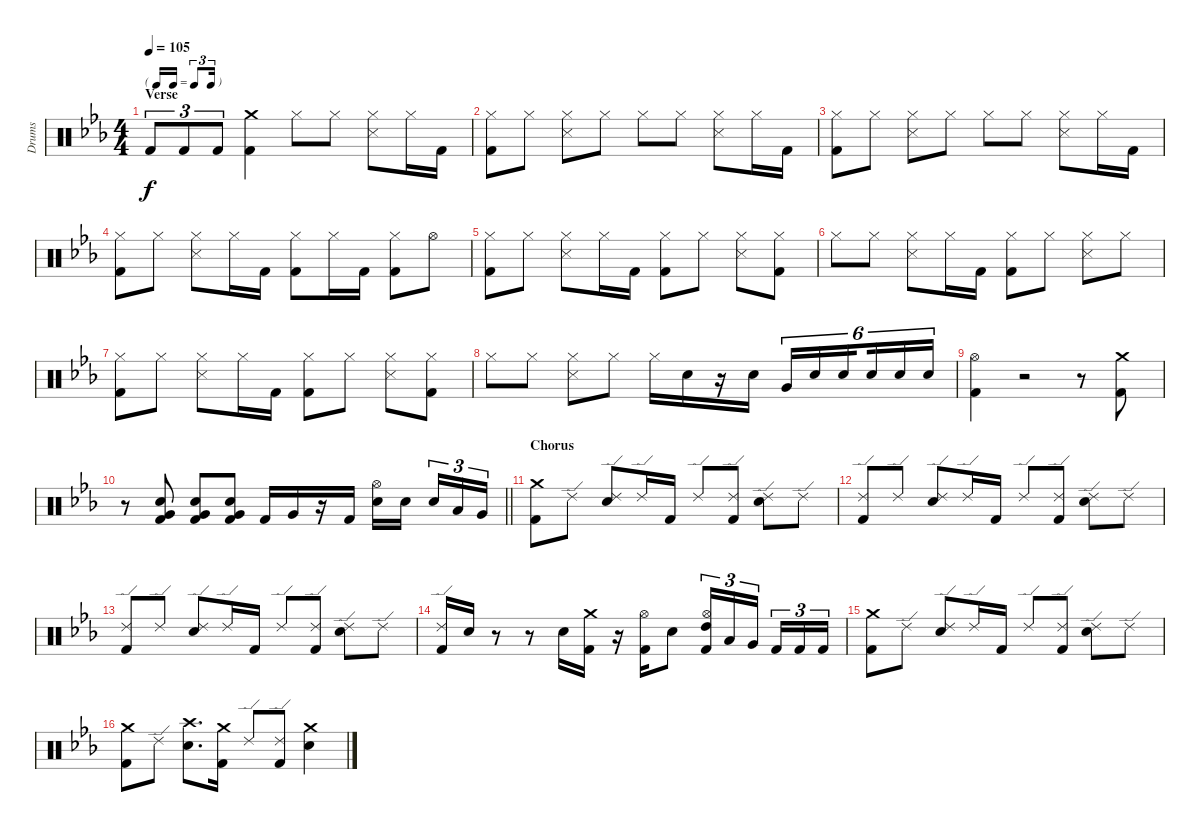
\track ("Drums" "Drums") {instrument percussion}
\staff {score}
\articulation defaults
\ts (4 4)
\tf triplet16th
\section ("" "Verse")
\tempo 105
\clef neutral
\ks eb "Kick (hit) 2".8{tu (3 2) dy f} "Kick (hit) 2".8{tu (3 2)} "Kick (hit) 2".8{tu (3 2)}
("Crash medium (hit)" "Kick (hit) 2").4 "Hi-Hat (closed)".8 "Hi-Hat (closed)".8 ("Hi-Hat (closed)" "Snare (side stick) 3").8 "Hi-Hat (closed)".16 "Kick (hit) 2".16 |
("Hi-Hat (closed)" "Kick (hit) 2").8 "Hi-Hat (closed)".8 ("Hi-Hat (closed)" "Snare (side stick) 3").8 "Hi-Hat (closed)".8 "Hi-Hat (closed)".8 "Hi-Hat (closed)".8 ("Hi-Hat (closed)" "Snare (side stick) 3").8 "Hi-Hat (closed)".16 "Kick (hit) 2".16 |
("Hi-Hat (closed)" "Kick (hit) 2").8 "Hi-Hat (closed)".8 ("Hi-Hat (closed)" "Snare (side stick) 3").8 "Hi-Hat (closed)".8 "Hi-Hat (closed)".8 "Hi-Hat (closed)".8 ("Hi-Hat (closed)" "Snare (side stick) 3").8 "Hi-Hat (closed)".16 "Kick (hit) 2".16 |
("Hi-Hat (closed)" "Kick (hit) 2").8 "Hi-Hat (closed)".8 ("Hi-Hat (closed)" "Snare (side stick) 3").8 "Hi-Hat (closed)".16 "Kick (hit) 2".16 ("Hi-Hat (closed)" "Kick (hit) 2").8 "Hi-Hat (closed)".16 "Kick (hit) 2".16 ("Hi-Hat (closed)" "Kick (hit) 2").8 "Hi-Hat (open)".8 |
("Hi-Hat (closed)" "Kick (hit) 2").8 "Hi-Hat (closed)".8 ("Hi-Hat (closed)" "Snare (side stick) 3").8 "Hi-Hat (closed)".16 "Kick (hit) 2".16 ("Hi-Hat (closed)" "Kick (hit) 2").8 "Hi-Hat (closed)".8 ("Hi-Hat (closed)" "Snare (side stick) 3").8 ("Hi-Hat (closed)" "Kick (hit) 2").8 |
"Hi-Hat (closed)".8 "Hi-Hat (closed)".8 ("Hi-Hat (closed)" "Snare (side stick) 3").8 "Hi-Hat (closed)".16 "Kick (hit) 2".16 ("Hi-Hat (closed)" "Kick (hit) 2").8 "Hi-Hat (closed)".8 ("Hi-Hat (closed)" "Snare (side stick) 3").8 "Hi-Hat (closed)".8 |
("Hi-Hat (closed)" "Kick (hit) 2").8 "Hi-Hat (closed)".8 ("Hi-Hat (closed)" "Snare (side stick) 3").8 "Hi-Hat (closed)".16 "Kick (hit) 2".16 ("Hi-Hat (closed)" "Kick (hit) 2").8 "Hi-Hat (closed)".8 ("Hi-Hat (closed)" "Snare (side stick) 3").8 ("Hi-Hat (closed)" "Kick (hit) 2").8 |
"Hi-Hat (closed)".8 "Hi-Hat (closed)".8 ("Hi-Hat (closed)" "Snare (side stick) 3").8 "Hi-Hat (closed)".8 "Hi-Hat (closed)".16 "Snare (hit) 2".16 r.16 "Snare (hit) 2".16 "Very Low Tom (hit)".16{tu (6 4)} "Snare (hit) 2".16{tu (6 4)} "Snare (hit) 2".16{tu (6 4) beam splitsecondary} "Snare (hit) 2".16{tu (6 4)} "Snare (hit) 2".16{tu (6 4)} "Snare (hit) 2".16{tu (6 4)} |
("Hi-Hat (open)" "Kick (hit) 2").4 r.2 r.8 ("Crash medium (hit)" "Kick (hit) 2").8 |
\barLineRight lightlight
r.8 ("Snare (hit) 2" "Very Low Tom (hit)" "Kick (hit) 2").8 ("Snare (hit) 2" "Very Low Tom (hit)" "Kick (hit) 2").8 ("Snare (hit) 2" "Very Low Tom (hit)" "Kick (hit) 2").8 "Kick (hit) 2".16 "Very Low Tom (hit)".16 r.16 "Kick (hit) 2".16 ("Hi-Hat (open)" "Snare (hit) 2").16 "Snare (hit) 2".16{beam splitsecondary} "Snare (hit) 2".16{tu (3 2)} "Low Tom (hit)".16{tu (3 2)} "Very Low Tom (hit)".16{tu (3 2)} |
\section ("" "Chorus")
("Crash medium (hit)" "Kick (hit) 2").8 "Ride (edge) 2".8 ("Ride (edge) 2" "Snare (hit) 2").8 "Ride (edge) 2".16 "Kick (hit) 2".16 "Ride (edge) 2".8 ("Ride (edge) 2" "Kick (hit) 2").8 ("Ride (edge) 2" "Snare (hit) 2").8 "Ride (edge) 2".8 |
("Ride (edge) 2" "Kick (hit) 2").8 "Ride (edge) 2".8 ("Ride (edge) 2" "Snare (hit) 2").8 "Ride (edge) 2".16 "Kick (hit) 2".16 "Ride (edge) 2".8 ("Ride (edge) 2" "Kick (hit) 2").8 ("Ride (edge) 2" "Snare (hit) 2").8 "Ride (edge) 2".8 |
("Ride (edge) 2" "Kick (hit) 2").8 "Ride (edge) 2".8 ("Ride (edge) 2" "Snare (hit) 2").8 "Ride (edge) 2".16 "Kick (hit) 2".16 "Ride (edge) 2".8 ("Ride (edge) 2" "Kick (hit) 2").8 ("Ride (edge) 2" "Snare (hit) 2").8 "Ride (edge) 2".8 |
("Ride (edge) 2" "Kick (hit) 2").16 "Snare (hit) 2".16 r.8 r.8 "Snare (hit) 2".16 ("Crash medium (hit)" "Kick (hit) 2").16 r.16 ("Hi-Hat (open)" "Kick (hit) 2").16 "Snare (hit) 2".8 ("Hi-Hat (open)" "High Tom (hit)" "Kick (hit) 2").16{tu (3 2)} "Low Tom (hit)".16{tu (3 2)} "Very Low Tom (hit)".16{tu (3 2) beam splitsecondary} "Kick (hit) 2".16{tu (3 2)} "Kick (hit) 2".16{tu (3 2)} "Kick (hit) 2".16{tu (3 2)} |
("Crash medium (hit)" "Kick (hit) 2").8 "Ride (edge) 2".8 ("Ride (edge) 2" "Snare (hit) 2").8 "Ride (edge) 2".16 "Kick (hit) 2".16 "Ride (edge) 2".8 ("Ride (edge) 2" "Kick (hit) 2").8 ("Ride (edge) 2" "Snare (hit) 2").8 "Ride (edge) 2".8 |
("Crash medium (hit)" "Kick (hit) 2").8 "Ride (edge) 2".8 ("Crash high (hit)" "Snare (hit) 2").8{d} ("Crash medium (hit)" "Kick (hit) 2").16 "Ride (edge) 2".8 ("Ride (edge) 2" "Kick (hit) 2").8 ("Crash medium (hit)" "Snare (hit) 2").4
